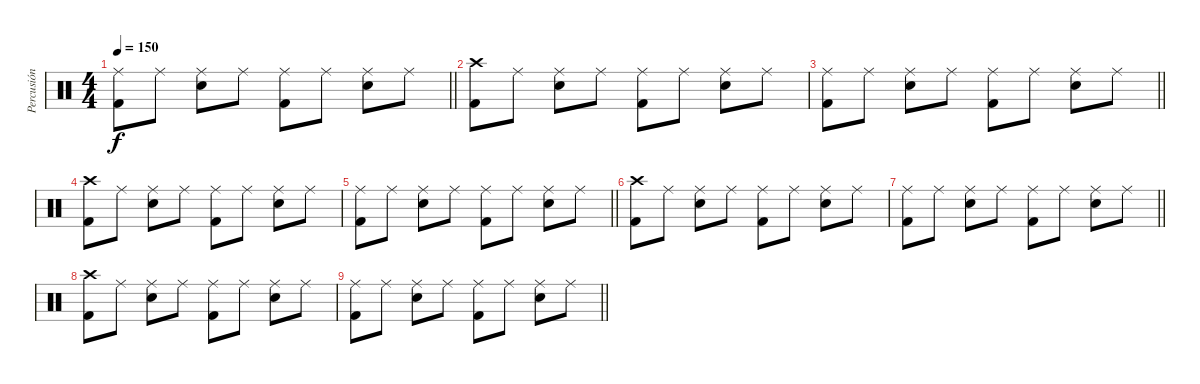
\track ("Percusión" "Percusión") {instrument percussion}
\staff {score}
\articulation defaults
\ts (4 4)
\tempo 150
\clef neutral
\barLineRight lightlight
\ks c
("Ride (middle)" "Kick (hit) 2").8{dy f} "Ride (middle)".8 ("Ride (middle)" "Snare (hit) 2").8 "Ride (middle)".8 ("Ride (middle)" "Kick (hit) 2").8 "Ride (middle)".8 ("Ride (middle)" "Snare (hit) 2").8 "Ride (middle)".8 |
("Crash high (hit)" "Kick (hit) 2").8 "Ride (middle)".8 ("Ride (middle)" "Snare (hit) 2").8 "Ride (middle)".8 ("Ride (middle)" "Kick (hit) 2").8 "Ride (middle)".8 ("Ride (middle)" "Snare (hit) 2").8 "Ride (middle)".8 |
\barLineRight lightlight
("Ride (middle)" "Kick (hit) 2").8 "Ride (middle)".8 ("Ride (middle)" "Snare (hit) 2").8 "Ride (middle)".8 ("Ride (middle)" "Kick (hit) 2").8 "Ride (middle)".8 ("Ride (middle)" "Snare (hit) 2").8 "Ride (middle)".8 |
("Crash high (hit)" "Kick (hit) 2").8 "Ride (middle)".8 ("Ride (middle)" "Snare (hit) 2").8 "Ride (middle)".8 ("Ride (middle)" "Kick (hit) 2").8 "Ride (middle)".8 ("Ride (middle)" "Snare (hit) 2").8 "Ride (middle)".8 |
\barLineRight lightlight
("Ride (middle)" "Kick (hit) 2").8 "Ride (middle)".8 ("Ride (middle)" "Snare (hit) 2").8 "Ride (middle)".8 ("Ride (middle)" "Kick (hit) 2").8 "Ride (middle)".8 ("Ride (middle)" "Snare (hit) 2").8 "Ride (middle)".8 |
("Crash high (hit)" "Kick (hit) 2").8 "Ride (middle)".8 ("Ride (middle)" "Snare (hit) 2").8 "Ride (middle)".8 ("Ride (middle)" "Kick (hit) 2").8 "Ride (middle)".8 ("Ride (middle)" "Snare (hit) 2").8 "Ride (middle)".8 |
\barLineRight lightlight
("Ride (middle)" "Kick (hit) 2").8 "Ride (middle)".8 ("Ride (middle)" "Snare (hit) 2").8 "Ride (middle)".8 ("Ride (middle)" "Kick (hit) 2").8 "Ride (middle)".8 ("Ride (middle)" "Snare (hit) 2").8 "Ride (middle)".8 |
("Crash high (hit)" "Kick (hit) 2").8 "Ride (middle)".8 ("Ride (middle)" "Snare (hit) 2").8 "Ride (middle)".8 ("Ride (middle)" "Kick (hit) 2").8 "Ride (middle)".8 ("Ride (middle)" "Snare (hit) 2").8 "Ride (middle)".8 |
\barLineRight lightlight
("Ride (middle)" "Kick (hit) 2").8 "Ride (middle)".8 ("Ride (middle)" "Snare (hit) 2").8 "Ride (middle)".8 ("Ride (middle)" "Kick (hit) 2").8 "Ride (middle)".8 ("Ride (middle)" "Snare (hit) 2").8 "Ride (middle)".8
